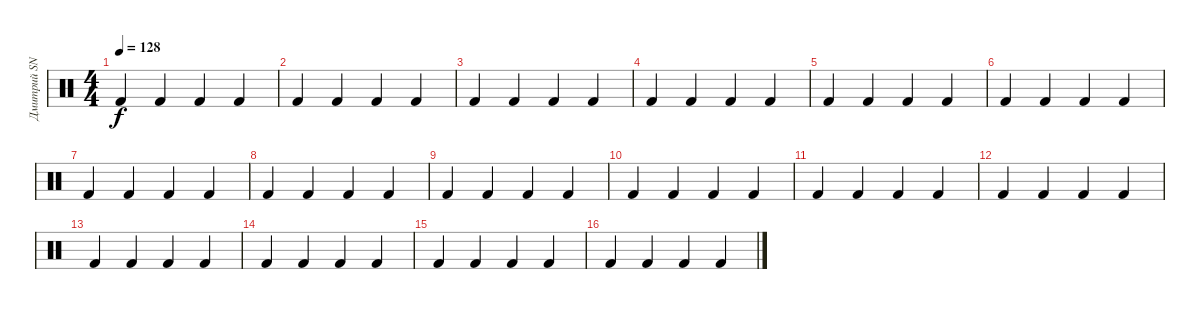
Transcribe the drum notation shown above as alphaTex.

\track ("Дмитрий SNAKE Хакимов" "Дмитрий SN") {instrument percussion}
\staff {score}
\articulation defaults
\ts (4 4)
\tempo 128
\clef neutral
\ks c "Kick (hit) 2".4{dy f} "Kick (hit) 2".4 "Kick (hit) 2".4 "Kick (hit) 2".4
|
"Kick (hit) 2".4 "Kick (hit) 2".4 "Kick (hit) 2".4 "Kick (hit) 2".4 |
"Kick (hit) 2".4 "Kick (hit) 2".4 "Kick (hit) 2".4 "Kick (hit) 2".4 |
"Kick (hit) 2".4 "Kick (hit) 2".4 "Kick (hit) 2".4 "Kick (hit) 2".4 |
"Kick (hit) 2".4 "Kick (hit) 2".4 "Kick (hit) 2".4 "Kick (hit) 2".4 |
"Kick (hit) 2".4 "Kick (hit) 2".4 "Kick (hit) 2".4 "Kick (hit) 2".4 |
"Kick (hit) 2".4 "Kick (hit) 2".4 "Kick (hit) 2".4 "Kick (hit) 2".4 |
"Kick (hit) 2".4 "Kick (hit) 2".4 "Kick (hit) 2".4 "Kick (hit) 2".4 |
"Kick (hit) 2".4 "Kick (hit) 2".4 "Kick (hit) 2".4 "Kick (hit) 2".4 |
"Kick (hit) 2".4 "Kick (hit) 2".4 "Kick (hit) 2".4 "Kick (hit) 2".4 |
"Kick (hit) 2".4 "Kick (hit) 2".4 "Kick (hit) 2".4 "Kick (hit) 2".4 |
"Kick (hit) 2".4 "Kick (hit) 2".4 "Kick (hit) 2".4 "Kick (hit) 2".4 |
"Kick (hit) 2".4 "Kick (hit) 2".4 "Kick (hit) 2".4 "Kick (hit) 2".4 |
"Kick (hit) 2".4 "Kick (hit) 2".4 "Kick (hit) 2".4 "Kick (hit) 2".4 |
"Kick (hit) 2".4 "Kick (hit) 2".4 "Kick (hit) 2".4 "Kick (hit) 2".4 |
"Kick (hit) 2".4 "Kick (hit) 2".4 "Kick (hit) 2".4 "Kick (hit) 2".4
